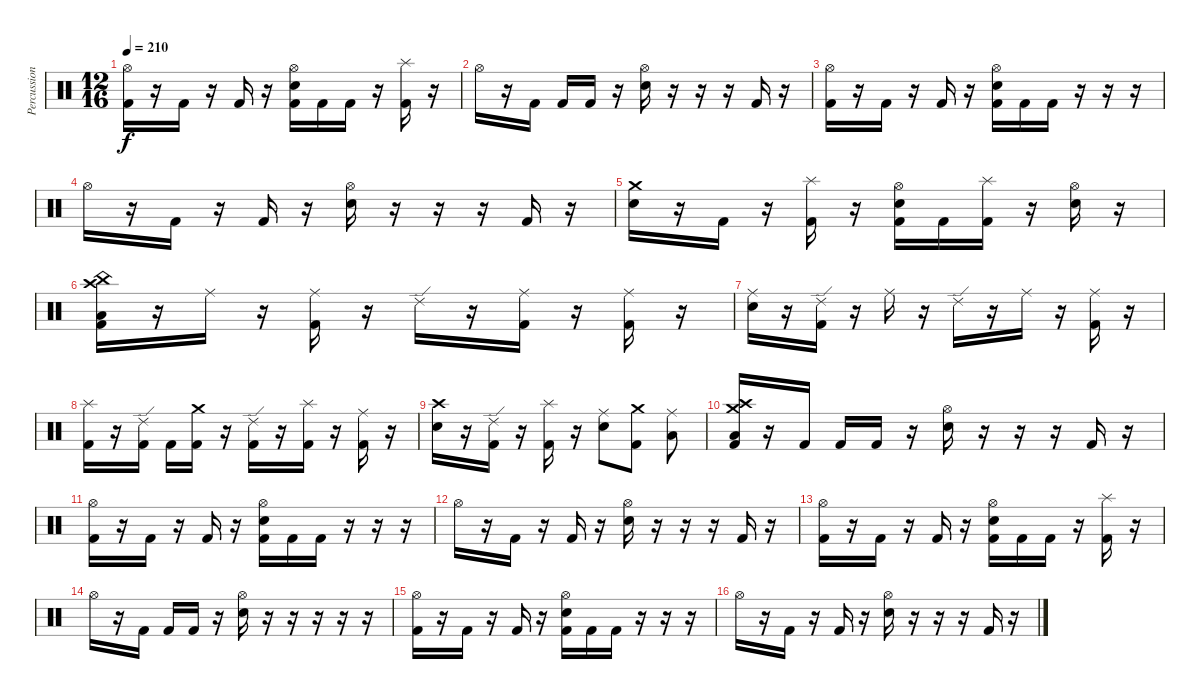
\track ("Percussion" "Percussion") {instrument percussion}
\staff {score}
\articulation defaults
\ts (12 16)
\tempo 210
\clef neutral
\ks c
("Hi-Hat (open)" "Kick (hit) 2").16{dy f} r.16 "Kick (hit) 2".16 r.16 "Kick (hit) 2".16 r.16 ("Hi-Hat (open)" "Electric Snare (hit)" "Kick (hit) 2").16 "Kick (hit) 2".16 "Kick (hit) 2".16 r.16 ("Splash (hit)" "Kick (hit) 2").16 r.16 |
"Hi-Hat (open)".16 r.16 "Kick (hit) 2".16 "Kick (hit) 2".16 "Kick (hit) 2".16 r.16 ("Hi-Hat (open)" "Electric Snare (hit)").16 r.16 r.16 r.16 "Kick (hit) 2".16 r.16 |
("Hi-Hat (open)" "Kick (hit) 2").16 r.16 "Kick (hit) 2".16 r.16 "Kick (hit) 2".16 r.16 ("Hi-Hat (open)" "Electric Snare (hit)" "Kick (hit) 2").16 "Kick (hit) 2".16 "Kick (hit) 2".16 r.16 r.16 r.16 |
"Hi-Hat (open)".16 r.16 "Kick (hit) 2".16 r.16 "Kick (hit) 2".16 r.16 ("Hi-Hat (open)" "Electric Snare (hit)").16 r.16 r.16 r.16 "Kick (hit) 2".16 r.16 |
("Crash medium (hit)" "Electric Snare (hit)").16 r.16 "Kick (hit) 2".16 r.16 ("Splash (hit)" "Kick (hit) 2").16 r.16 ("Hi-Hat (open)" "Electric Snare (hit)" "Kick (hit) 2").16 "Kick (hit) 2".16 ("Splash (hit)" "Kick (hit) 2").16 r.16 ("Hi-Hat (open)" "Electric Snare (hit)").16 r.16 |
("China (hit)" "Crash high (hit)" "Low Floor Tom (hit)" "Kick (hit) 2").16 r.16 "Ride (middle)".16 r.16 ("Ride (middle)" "Kick (hit) 2").16 r.16 "Ride (edge) 2".16 r.16 ("Ride (middle)" "Kick (hit) 2").16 r.16 ("Ride (middle)" "Kick (hit) 2").16 r.16 |
("Ride (middle)" "Electric Snare (hit)").16 r.16 ("Ride (edge) 2" "Kick (hit) 2").16 r.16 "Ride (middle)".16 r.16 "Ride (edge) 2".16 r.16 "Ride (middle)".16 r.16 ("Ride (middle)" "Kick (hit) 2").16 r.16 |
("Splash (hit)" "Kick (hit) 2").16 r.16 ("Ride (edge) 2" "Kick (hit) 2").16 "Kick (hit) 2".16 ("Crash medium (hit)" "Kick (hit) 2").16 r.16 ("Ride (edge) 2" "Kick (hit) 2").16 r.16 ("Splash (hit)" "Kick (hit) 2").16 r.16 ("Ride (middle)" "Kick (hit) 2").16 r.16 |
("Crash high (hit)" "Electric Snare (hit)").16 r.16 ("Ride (edge) 2" "Kick (hit) 2").16 r.16 ("Splash (hit)" "Kick (hit) 2").16 r.16 ("Ride (middle)" "Electric Snare (hit)").8 ("Crash medium (hit)" "Kick (hit) 2").8 ("Ride (middle)" "Low Floor Tom (hit)").8 |
("Crash high (hit)" "Crash medium (hit)" "Low Floor Tom (hit)" "Kick (hit) 2").16 r.16 "Kick (hit) 2".16 "Kick (hit) 2".16 "Kick (hit) 2".16 r.16 ("Hi-Hat (open)" "Electric Snare (hit)").16 r.16 r.16 r.16 "Kick (hit) 2".16 r.16 |
("Hi-Hat (open)" "Kick (hit) 2").16 r.16 "Kick (hit) 2".16 r.16 "Kick (hit) 2".16 r.16 ("Hi-Hat (open)" "Electric Snare (hit)" "Kick (hit) 2").16 "Kick (hit) 2".16 "Kick (hit) 2".16 r.16 r.16 r.16 |
"Hi-Hat (open)".16 r.16 "Kick (hit) 2".16 r.16 "Kick (hit) 2".16 r.16 ("Hi-Hat (open)" "Electric Snare (hit)").16 r.16 r.16 r.16 "Kick (hit) 2".16 r.16 |
("Hi-Hat (open)" "Kick (hit) 2").16 r.16 "Kick (hit) 2".16 r.16 "Kick (hit) 2".16 r.16 ("Hi-Hat (open)" "Electric Snare (hit)" "Kick (hit) 2").16 "Kick (hit) 2".16 "Kick (hit) 2".16 r.16 ("Splash (hit)" "Kick (hit) 2").16 r.16 |
"Hi-Hat (open)".16 r.16 "Kick (hit) 2".16 "Kick (hit) 2".16 "Kick (hit) 2".16 r.16 ("Hi-Hat (open)" "Electric Snare (hit)").16 r.16 r.16 r.16 r.16 r.16 |
("Hi-Hat (open)" "Kick (hit) 2").16 r.16 "Kick (hit) 2".16 r.16 "Kick (hit) 2".16 r.16 ("Hi-Hat (open)" "Electric Snare (hit)" "Kick (hit) 2").16 "Kick (hit) 2".16 "Kick (hit) 2".16 r.16 r.16 r.16 |
"Hi-Hat (open)".16 r.16 "Kick (hit) 2".16 r.16 "Kick (hit) 2".16 r.16 ("Hi-Hat (open)" "Electric Snare (hit)").16 r.16 r.16 r.16 "Kick (hit) 2".16 r.16
